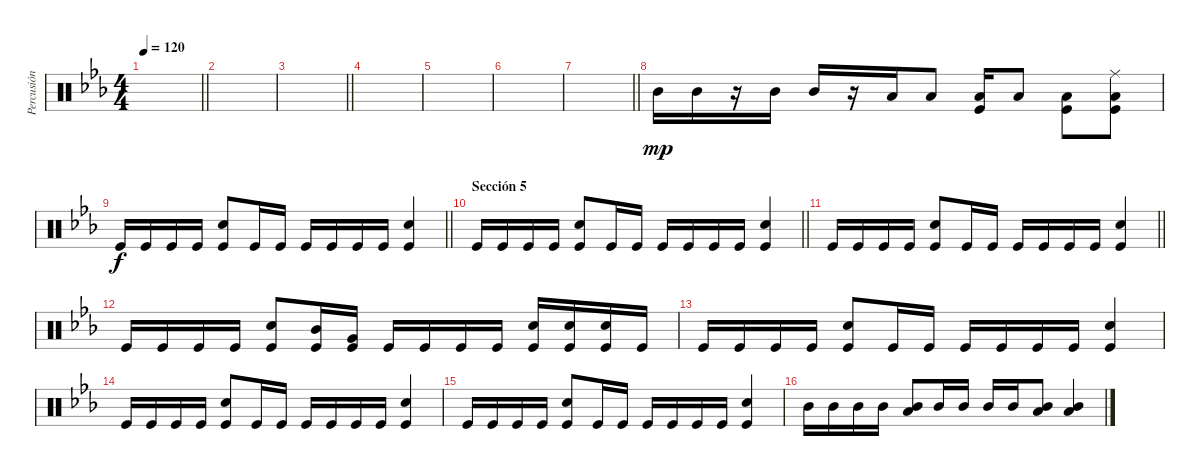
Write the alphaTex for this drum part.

\track ("Percusión" "Percusión") {instrument percussion}
\staff {score}
\articulation defaults
\ts (4 4)
\tempo 120
\clef neutral
\barLineRight lightlight
\ks eb
|
|
\barLineRight lightlight
|
|
|
|
\barLineRight lightlight
|
"Mid Tom (hit)".16{dy mp} "Mid Tom (hit)".16 r.16 "Mid Tom (hit)".16 "Mid Tom (hit)".16 r.16 "Low Tom (hit)".16 "Low Tom (hit)".8 ("Kick (hit)" "Low Tom (hit)").16 "Low Tom (hit)".8 ("Kick (hit)" "Low Tom (hit)").8 ("Ride (middle)" "Kick (hit)" "Low Tom (hit)").8 |
\barLineRight lightlight "Kick (hit)".16{dy f} "Kick (hit)".16 "Kick (hit)".16 "Kick (hit)".16
("Snare (hit) 2" "Kick (hit)").8 "Kick (hit)".16 "Kick (hit)".16 "Kick (hit)".16 "Kick (hit)".16 "Kick (hit)".16 "Kick (hit)".16 ("Snare (hit) 2" "Kick (hit)").4 |
\section ("" "Sección 5")
\barLineRight lightlight "Kick (hit)".16 "Kick (hit)".16 "Kick (hit)".16 "Kick (hit)".16
("Snare (hit) 2" "Kick (hit)").8 "Kick (hit)".16 "Kick (hit)".16 "Kick (hit)".16 "Kick (hit)".16 "Kick (hit)".16 "Kick (hit)".16 ("Snare (hit) 2" "Kick (hit)").4 |
\barLineRight lightlight "Kick (hit)".16 "Kick (hit)".16 "Kick (hit)".16 "Kick (hit)".16
("Snare (hit) 2" "Kick (hit)").8 "Kick (hit)".16 "Kick (hit)".16 "Kick (hit)".16 "Kick (hit)".16 "Kick (hit)".16 "Kick (hit)".16 ("Snare (hit) 2" "Kick (hit)").4 |
"Kick (hit)".16 "Kick (hit)".16 "Kick (hit)".16 "Kick (hit)".16 ("Snare (hit) 2" "Kick (hit)").8 ("Mid Tom (hit)" "Kick (hit)").16 ("Very Low Tom (hit)" "Kick (hit)").16 "Kick (hit)".16 "Kick (hit)".16 "Kick (hit)".16 "Kick (hit)".16 ("Snare (hit) 2" "Kick (hit)").16 ("Snare (hit) 2" "Kick (hit)").16 ("Snare (hit) 2" "Kick (hit)").16 "Kick (hit)".16 |
"Kick (hit)".16 "Kick (hit)".16 "Kick (hit)".16 "Kick (hit)".16 ("Snare (hit) 2" "Kick (hit)").8 "Kick (hit)".16 "Kick (hit)".16 "Kick (hit)".16 "Kick (hit)".16 "Kick (hit)".16 "Kick (hit)".16 ("Snare (hit) 2" "Kick (hit)").4 |
"Kick (hit)".16 "Kick (hit)".16 "Kick (hit)".16 "Kick (hit)".16 ("Snare (hit) 2" "Kick (hit)").8 "Kick (hit)".16 "Kick (hit)".16 "Kick (hit)".16 "Kick (hit)".16 "Kick (hit)".16 "Kick (hit)".16 ("Snare (hit) 2" "Kick (hit)").4 |
"Kick (hit)".16 "Kick (hit)".16 "Kick (hit)".16 "Kick (hit)".16 ("Snare (hit) 2" "Kick (hit)").8 "Kick (hit)".16 "Kick (hit)".16 "Kick (hit)".16 "Kick (hit)".16 "Kick (hit)".16 "Kick (hit)".16 ("Snare (hit) 2" "Kick (hit)").4 |
"Mid Tom (hit)".16 "Mid Tom (hit)".16 "Mid Tom (hit)".16 "Mid Tom (hit)".16 ("Low Tom (hit)" "Mid Tom (hit)").8 "Mid Tom (hit)".16 "Mid Tom (hit)".16 "Mid Tom (hit)".16 "Mid Tom (hit)".16 ("Low Tom (hit)" "Mid Tom (hit)").8 ("Low Tom (hit)" "Mid Tom (hit)").4
